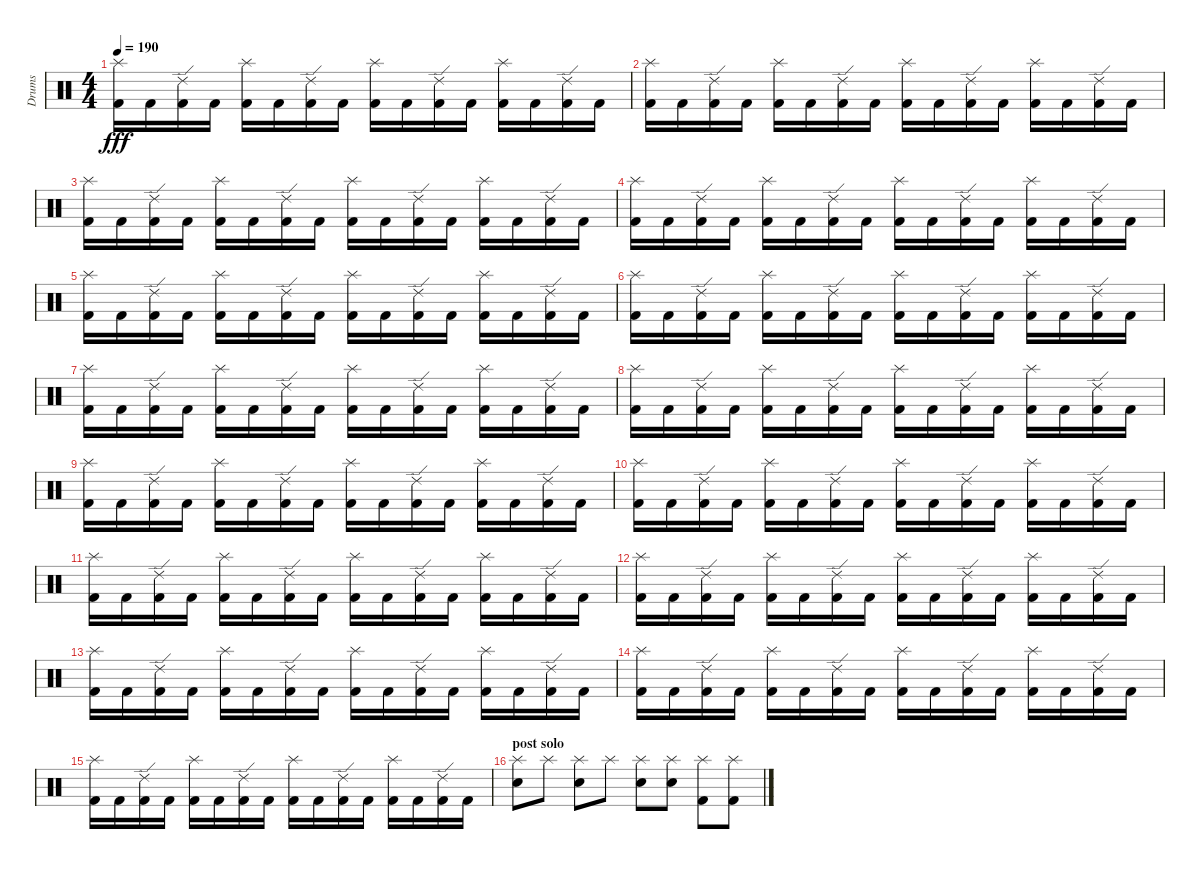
\track ("Drums" "Drums") {instrument percussion}
\staff {score}
\articulation defaults
\ts (4 4)
\tempo 190
\clef neutral
\ks c
("Splash (hit)" "Kick (hit) 2").16{dy fff} "Kick (hit) 2".16 ("Ride (edge) 2" "Kick (hit) 2").16 "Kick (hit) 2".16 ("Splash (hit)" "Kick (hit) 2").16 "Kick (hit) 2".16 ("Ride (edge) 2" "Kick (hit) 2").16 "Kick (hit) 2".16 ("Splash (hit)" "Kick (hit) 2").16 "Kick (hit) 2".16 ("Ride (edge) 2" "Kick (hit) 2").16 "Kick (hit) 2".16 ("Splash (hit)" "Kick (hit) 2").16 "Kick (hit) 2".16 ("Ride (edge) 2" "Kick (hit) 2").16 "Kick (hit) 2".16 |
("Splash (hit)" "Kick (hit) 2").16 "Kick (hit) 2".16 ("Ride (edge) 2" "Kick (hit) 2").16 "Kick (hit) 2".16 ("Splash (hit)" "Kick (hit) 2").16 "Kick (hit) 2".16 ("Ride (edge) 2" "Kick (hit) 2").16 "Kick (hit) 2".16 ("Splash (hit)" "Kick (hit) 2").16 "Kick (hit) 2".16 ("Ride (edge) 2" "Kick (hit) 2").16 "Kick (hit) 2".16 ("Splash (hit)" "Kick (hit) 2").16 "Kick (hit) 2".16 ("Ride (edge) 2" "Kick (hit) 2").16 "Kick (hit) 2".16 |
("Splash (hit)" "Kick (hit) 2").16 "Kick (hit) 2".16 ("Ride (edge) 2" "Kick (hit) 2").16 "Kick (hit) 2".16 ("Splash (hit)" "Kick (hit) 2").16 "Kick (hit) 2".16 ("Ride (edge) 2" "Kick (hit) 2").16 "Kick (hit) 2".16 ("Splash (hit)" "Kick (hit) 2").16 "Kick (hit) 2".16 ("Ride (edge) 2" "Kick (hit) 2").16 "Kick (hit) 2".16 ("Splash (hit)" "Kick (hit) 2").16 "Kick (hit) 2".16 ("Ride (edge) 2" "Kick (hit) 2").16 "Kick (hit) 2".16 |
("Splash (hit)" "Kick (hit) 2").16 "Kick (hit) 2".16 ("Ride (edge) 2" "Kick (hit) 2").16 "Kick (hit) 2".16 ("Splash (hit)" "Kick (hit) 2").16 "Kick (hit) 2".16 ("Ride (edge) 2" "Kick (hit) 2").16 "Kick (hit) 2".16 ("Splash (hit)" "Kick (hit) 2").16 "Kick (hit) 2".16 ("Ride (edge) 2" "Kick (hit) 2").16 "Kick (hit) 2".16 ("Splash (hit)" "Kick (hit) 2").16 "Kick (hit) 2".16 ("Ride (edge) 2" "Kick (hit) 2").16 "Kick (hit) 2".16 |
("Splash (hit)" "Kick (hit) 2").16 "Kick (hit) 2".16 ("Ride (edge) 2" "Kick (hit) 2").16 "Kick (hit) 2".16 ("Splash (hit)" "Kick (hit) 2").16 "Kick (hit) 2".16 ("Ride (edge) 2" "Kick (hit) 2").16 "Kick (hit) 2".16 ("Splash (hit)" "Kick (hit) 2").16 "Kick (hit) 2".16 ("Ride (edge) 2" "Kick (hit) 2").16 "Kick (hit) 2".16 ("Splash (hit)" "Kick (hit) 2").16 "Kick (hit) 2".16 ("Ride (edge) 2" "Kick (hit) 2").16 "Kick (hit) 2".16 |
("Splash (hit)" "Kick (hit) 2").16 "Kick (hit) 2".16 ("Ride (edge) 2" "Kick (hit) 2").16 "Kick (hit) 2".16 ("Splash (hit)" "Kick (hit) 2").16 "Kick (hit) 2".16 ("Ride (edge) 2" "Kick (hit) 2").16 "Kick (hit) 2".16 ("Splash (hit)" "Kick (hit) 2").16 "Kick (hit) 2".16 ("Ride (edge) 2" "Kick (hit) 2").16 "Kick (hit) 2".16 ("Splash (hit)" "Kick (hit) 2").16 "Kick (hit) 2".16 ("Ride (edge) 2" "Kick (hit) 2").16 "Kick (hit) 2".16 |
("Splash (hit)" "Kick (hit) 2").16 "Kick (hit) 2".16 ("Ride (edge) 2" "Kick (hit) 2").16 "Kick (hit) 2".16 ("Splash (hit)" "Kick (hit) 2").16 "Kick (hit) 2".16 ("Ride (edge) 2" "Kick (hit) 2").16 "Kick (hit) 2".16 ("Splash (hit)" "Kick (hit) 2").16 "Kick (hit) 2".16 ("Ride (edge) 2" "Kick (hit) 2").16 "Kick (hit) 2".16 ("Splash (hit)" "Kick (hit) 2").16 "Kick (hit) 2".16 ("Ride (edge) 2" "Kick (hit) 2").16 "Kick (hit) 2".16 |
("Splash (hit)" "Kick (hit) 2").16 "Kick (hit) 2".16 ("Ride (edge) 2" "Kick (hit) 2").16 "Kick (hit) 2".16 ("Splash (hit)" "Kick (hit) 2").16 "Kick (hit) 2".16 ("Ride (edge) 2" "Kick (hit) 2").16 "Kick (hit) 2".16 ("Splash (hit)" "Kick (hit) 2").16 "Kick (hit) 2".16 ("Ride (edge) 2" "Kick (hit) 2").16 "Kick (hit) 2".16 ("Splash (hit)" "Kick (hit) 2").16 "Kick (hit) 2".16 ("Ride (edge) 2" "Kick (hit) 2").16 "Kick (hit) 2".16 |
("Splash (hit)" "Kick (hit) 2").16 "Kick (hit) 2".16 ("Ride (edge) 2" "Kick (hit) 2").16 "Kick (hit) 2".16 ("Splash (hit)" "Kick (hit) 2").16 "Kick (hit) 2".16 ("Ride (edge) 2" "Kick (hit) 2").16 "Kick (hit) 2".16 ("Splash (hit)" "Kick (hit) 2").16 "Kick (hit) 2".16 ("Ride (edge) 2" "Kick (hit) 2").16 "Kick (hit) 2".16 ("Splash (hit)" "Kick (hit) 2").16 "Kick (hit) 2".16 ("Ride (edge) 2" "Kick (hit) 2").16 "Kick (hit) 2".16 |
("Splash (hit)" "Kick (hit) 2").16 "Kick (hit) 2".16 ("Ride (edge) 2" "Kick (hit) 2").16 "Kick (hit) 2".16 ("Splash (hit)" "Kick (hit) 2").16 "Kick (hit) 2".16 ("Ride (edge) 2" "Kick (hit) 2").16 "Kick (hit) 2".16 ("Splash (hit)" "Kick (hit) 2").16 "Kick (hit) 2".16 ("Ride (edge) 2" "Kick (hit) 2").16 "Kick (hit) 2".16 ("Splash (hit)" "Kick (hit) 2").16 "Kick (hit) 2".16 ("Ride (edge) 2" "Kick (hit) 2").16 "Kick (hit) 2".16 |
("Splash (hit)" "Kick (hit) 2").16 "Kick (hit) 2".16 ("Ride (edge) 2" "Kick (hit) 2").16 "Kick (hit) 2".16 ("Splash (hit)" "Kick (hit) 2").16 "Kick (hit) 2".16 ("Ride (edge) 2" "Kick (hit) 2").16 "Kick (hit) 2".16 ("Splash (hit)" "Kick (hit) 2").16 "Kick (hit) 2".16 ("Ride (edge) 2" "Kick (hit) 2").16 "Kick (hit) 2".16 ("Splash (hit)" "Kick (hit) 2").16 "Kick (hit) 2".16 ("Ride (edge) 2" "Kick (hit) 2").16 "Kick (hit) 2".16 |
("Splash (hit)" "Kick (hit) 2").16 "Kick (hit) 2".16 ("Ride (edge) 2" "Kick (hit) 2").16 "Kick (hit) 2".16 ("Splash (hit)" "Kick (hit) 2").16 "Kick (hit) 2".16 ("Ride (edge) 2" "Kick (hit) 2").16 "Kick (hit) 2".16 ("Splash (hit)" "Kick (hit) 2").16 "Kick (hit) 2".16 ("Ride (edge) 2" "Kick (hit) 2").16 "Kick (hit) 2".16 ("Splash (hit)" "Kick (hit) 2").16 "Kick (hit) 2".16 ("Ride (edge) 2" "Kick (hit) 2").16 "Kick (hit) 2".16 |
("Splash (hit)" "Kick (hit) 2").16 "Kick (hit) 2".16 ("Ride (edge) 2" "Kick (hit) 2").16 "Kick (hit) 2".16 ("Splash (hit)" "Kick (hit) 2").16 "Kick (hit) 2".16 ("Ride (edge) 2" "Kick (hit) 2").16 "Kick (hit) 2".16 ("Splash (hit)" "Kick (hit) 2").16 "Kick (hit) 2".16 ("Ride (edge) 2" "Kick (hit) 2").16 "Kick (hit) 2".16 ("Splash (hit)" "Kick (hit) 2").16 "Kick (hit) 2".16 ("Ride (edge) 2" "Kick (hit) 2").16 "Kick (hit) 2".16 |
("Splash (hit)" "Kick (hit) 2").16 "Kick (hit) 2".16 ("Ride (edge) 2" "Kick (hit) 2").16 "Kick (hit) 2".16 ("Splash (hit)" "Kick (hit) 2").16 "Kick (hit) 2".16 ("Ride (edge) 2" "Kick (hit) 2").16 "Kick (hit) 2".16 ("Splash (hit)" "Kick (hit) 2").16 "Kick (hit) 2".16 ("Ride (edge) 2" "Kick (hit) 2").16 "Kick (hit) 2".16 ("Splash (hit)" "Kick (hit) 2").16 "Kick (hit) 2".16 ("Ride (edge) 2" "Kick (hit) 2").16 "Kick (hit) 2".16 |
("Splash (hit)" "Kick (hit) 2").16 "Kick (hit) 2".16 ("Ride (edge) 2" "Kick (hit) 2").16 "Kick (hit) 2".16 ("Splash (hit)" "Kick (hit) 2").16 "Kick (hit) 2".16 ("Ride (edge) 2" "Kick (hit) 2").16 "Kick (hit) 2".16 ("Splash (hit)" "Kick (hit) 2").16 "Kick (hit) 2".16 ("Ride (edge) 2" "Kick (hit) 2").16 "Kick (hit) 2".16 ("Splash (hit)" "Kick (hit) 2").16 "Kick (hit) 2".16 ("Ride (edge) 2" "Kick (hit) 2").16 "Kick (hit) 2".16 |
\section ("" "post solo")
("Electric Snare (hit)" "Splash (hit)").8 "Splash (hit)".8 ("Electric Snare (hit)" "Splash (hit)").8 "Splash (hit)".8 ("Electric Snare (hit)" "Splash (hit)").8 ("Electric Snare (hit)" "Splash (hit)").8 ("Kick (hit) 2" "Splash (hit)").8 ("Kick (hit) 2" "Splash (hit)").8
